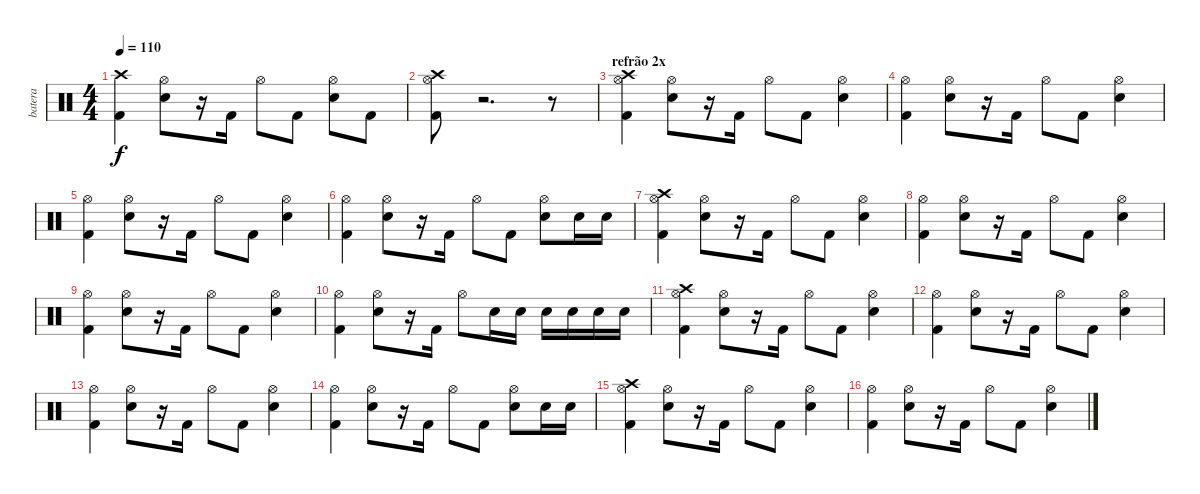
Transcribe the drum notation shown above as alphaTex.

\track ("batera" "batera") {instrument percussion}
\staff {score}
\articulation defaults
\ts (4 4)
\tempo 110
\clef neutral
\ks c
("Crash high (hit)" "Kick (hit) 2").4{dy f} ("Snare (hit) 2" "Hi-Hat (open)").8 r.16 "Kick (hit) 2".16 "Hi-Hat (open)".8 "Kick (hit) 2".8 ("Snare (hit) 2" "Hi-Hat (open)").8 "Kick (hit) 2".8 |
("Crash high (hit)" "Kick (hit) 2" "Hi-Hat (open)").8 r.2{d} r.8 |
\section ("" "refrão 2x")
("Crash high (hit)" "Kick (hit) 2" "Hi-Hat (open)").4 ("Snare (hit) 2" "Hi-Hat (open)").8 r.16 "Kick (hit) 2".16 "Hi-Hat (open)".8 "Kick (hit) 2".8 ("Snare (hit) 2" "Hi-Hat (open)").4 |
("Kick (hit) 2" "Hi-Hat (open)").4 ("Snare (hit) 2" "Hi-Hat (open)").8 r.16 "Kick (hit) 2".16 "Hi-Hat (open)".8 "Kick (hit) 2".8 ("Snare (hit) 2" "Hi-Hat (open)").4 |
("Kick (hit) 2" "Hi-Hat (open)").4 ("Snare (hit) 2" "Hi-Hat (open)").8 r.16 "Kick (hit) 2".16 "Hi-Hat (open)".8 "Kick (hit) 2".8 ("Snare (hit) 2" "Hi-Hat (open)").4 |
("Kick (hit) 2" "Hi-Hat (open)").4 ("Snare (hit) 2" "Hi-Hat (open)").8 r.16 "Kick (hit) 2".16 "Hi-Hat (open)".8 "Kick (hit) 2".8 ("Snare (hit) 2" "Hi-Hat (open)").8 "Snare (hit) 2".16 "Snare (hit) 2".16 |
("Crash high (hit)" "Kick (hit) 2" "Hi-Hat (open)").4 ("Snare (hit) 2" "Hi-Hat (open)").8 r.16 "Kick (hit) 2".16 "Hi-Hat (open)".8 "Kick (hit) 2".8 ("Snare (hit) 2" "Hi-Hat (open)").4 |
("Kick (hit) 2" "Hi-Hat (open)").4 ("Snare (hit) 2" "Hi-Hat (open)").8 r.16 "Kick (hit) 2".16 "Hi-Hat (open)".8 "Kick (hit) 2".8 ("Snare (hit) 2" "Hi-Hat (open)").4 |
("Kick (hit) 2" "Hi-Hat (open)").4 ("Snare (hit) 2" "Hi-Hat (open)").8 r.16 "Kick (hit) 2".16 "Hi-Hat (open)".8 "Kick (hit) 2".8 ("Snare (hit) 2" "Hi-Hat (open)").4 |
("Kick (hit) 2" "Hi-Hat (open)").4 ("Snare (hit) 2" "Hi-Hat (open)").8 r.16 "Kick (hit) 2".16 "Hi-Hat (open)".8 "Snare (hit) 2".16 "Snare (hit) 2".16 "Snare (hit) 2".16 "Snare (hit) 2".16 "Snare (hit) 2".16 "Snare (hit) 2".16 |
("Crash high (hit)" "Kick (hit) 2" "Hi-Hat (open)").4 ("Snare (hit) 2" "Hi-Hat (open)").8 r.16 "Kick (hit) 2".16 "Hi-Hat (open)".8 "Kick (hit) 2".8 ("Snare (hit) 2" "Hi-Hat (open)").4 |
("Kick (hit) 2" "Hi-Hat (open)").4 ("Snare (hit) 2" "Hi-Hat (open)").8 r.16 "Kick (hit) 2".16 "Hi-Hat (open)".8 "Kick (hit) 2".8 ("Snare (hit) 2" "Hi-Hat (open)").4 |
("Kick (hit) 2" "Hi-Hat (open)").4 ("Snare (hit) 2" "Hi-Hat (open)").8 r.16 "Kick (hit) 2".16 "Hi-Hat (open)".8 "Kick (hit) 2".8 ("Snare (hit) 2" "Hi-Hat (open)").4 |
("Kick (hit) 2" "Hi-Hat (open)").4 ("Snare (hit) 2" "Hi-Hat (open)").8 r.16 "Kick (hit) 2".16 "Hi-Hat (open)".8 "Kick (hit) 2".8 ("Snare (hit) 2" "Hi-Hat (open)").8 "Snare (hit) 2".16 "Snare (hit) 2".16 |
("Crash high (hit)" "Kick (hit) 2" "Hi-Hat (open)").4 ("Snare (hit) 2" "Hi-Hat (open)").8 r.16 "Kick (hit) 2".16 "Hi-Hat (open)".8 "Kick (hit) 2".8 ("Snare (hit) 2" "Hi-Hat (open)").4 |
("Kick (hit) 2" "Hi-Hat (open)").4 ("Snare (hit) 2" "Hi-Hat (open)").8 r.16 "Kick (hit) 2".16 "Hi-Hat (open)".8 "Kick (hit) 2".8 ("Snare (hit) 2" "Hi-Hat (open)").4
